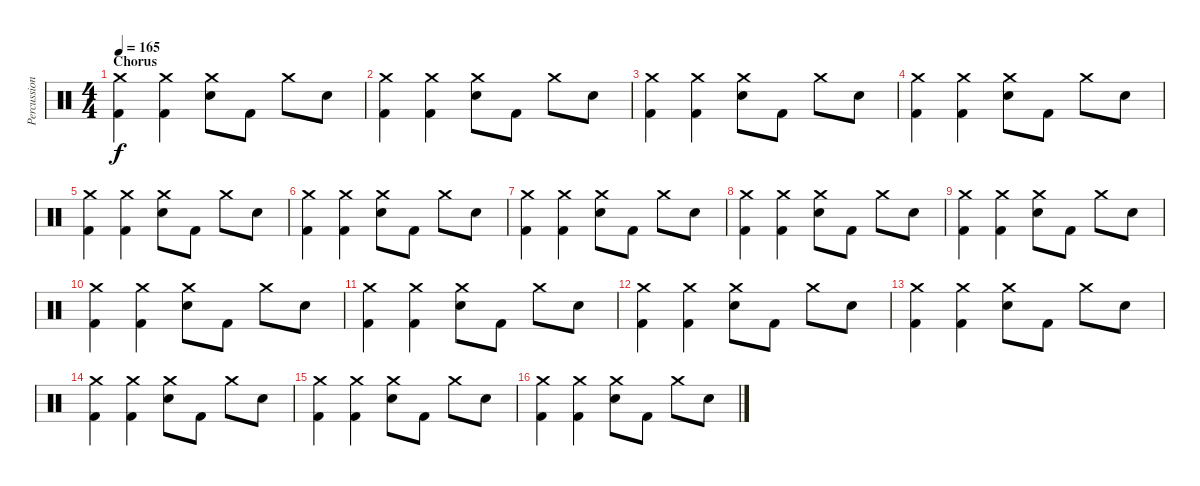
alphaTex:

\track ("Percussion" "Percussion") {instrument percussion}
\staff {score}
\articulation defaults
\ts (4 4)
\section ("" "Chorus")
\tempo 165
\clef neutral
\ks c
("Crash medium (hit)" "Kick (hit) 2").4{dy f} ("Crash medium (hit)" "Kick (hit) 2").4 ("Crash medium (hit)" "Snare (hit) 2").8 "Kick (hit) 2".8 "Crash medium (hit)".8 "Snare (hit) 2".8 |
("Crash medium (hit)" "Kick (hit) 2").4 ("Crash medium (hit)" "Kick (hit) 2").4 ("Crash medium (hit)" "Snare (hit) 2").8 "Kick (hit) 2".8 "Crash medium (hit)".8 "Snare (hit) 2".8 |
("Crash medium (hit)" "Kick (hit) 2").4 ("Crash medium (hit)" "Kick (hit) 2").4 ("Crash medium (hit)" "Snare (hit) 2").8 "Kick (hit) 2".8 "Crash medium (hit)".8 "Snare (hit) 2".8 |
("Crash medium (hit)" "Kick (hit) 2").4 ("Crash medium (hit)" "Kick (hit) 2").4 ("Crash medium (hit)" "Snare (hit) 2").8 "Kick (hit) 2".8 "Crash medium (hit)".8 "Snare (hit) 2".8 |
("Crash medium (hit)" "Kick (hit) 2").4 ("Crash medium (hit)" "Kick (hit) 2").4 ("Crash medium (hit)" "Snare (hit) 2").8 "Kick (hit) 2".8 "Crash medium (hit)".8 "Snare (hit) 2".8 |
("Crash medium (hit)" "Kick (hit) 2").4 ("Crash medium (hit)" "Kick (hit) 2").4 ("Crash medium (hit)" "Snare (hit) 2").8 "Kick (hit) 2".8 "Crash medium (hit)".8 "Snare (hit) 2".8 |
("Crash medium (hit)" "Kick (hit) 2").4 ("Crash medium (hit)" "Kick (hit) 2").4 ("Crash medium (hit)" "Snare (hit) 2").8 "Kick (hit) 2".8 "Crash medium (hit)".8 "Snare (hit) 2".8 |
("Crash medium (hit)" "Kick (hit) 2").4 ("Crash medium (hit)" "Kick (hit) 2").4 ("Crash medium (hit)" "Snare (hit) 2").8 "Kick (hit) 2".8 "Crash medium (hit)".8 "Snare (hit) 2".8 |
("Crash medium (hit)" "Kick (hit) 2").4 ("Crash medium (hit)" "Kick (hit) 2").4 ("Crash medium (hit)" "Snare (hit) 2").8 "Kick (hit) 2".8 "Crash medium (hit)".8 "Snare (hit) 2".8 |
("Crash medium (hit)" "Kick (hit) 2").4 ("Crash medium (hit)" "Kick (hit) 2").4 ("Crash medium (hit)" "Snare (hit) 2").8 "Kick (hit) 2".8 "Crash medium (hit)".8 "Snare (hit) 2".8 |
("Crash medium (hit)" "Kick (hit) 2").4 ("Crash medium (hit)" "Kick (hit) 2").4 ("Crash medium (hit)" "Snare (hit) 2").8 "Kick (hit) 2".8 "Crash medium (hit)".8 "Snare (hit) 2".8 |
("Crash medium (hit)" "Kick (hit) 2").4 ("Crash medium (hit)" "Kick (hit) 2").4 ("Crash medium (hit)" "Snare (hit) 2").8 "Kick (hit) 2".8 "Crash medium (hit)".8 "Snare (hit) 2".8 |
("Crash medium (hit)" "Kick (hit) 2").4 ("Crash medium (hit)" "Kick (hit) 2").4 ("Crash medium (hit)" "Snare (hit) 2").8 "Kick (hit) 2".8 "Crash medium (hit)".8 "Snare (hit) 2".8 |
("Crash medium (hit)" "Kick (hit) 2").4 ("Crash medium (hit)" "Kick (hit) 2").4 ("Crash medium (hit)" "Snare (hit) 2").8 "Kick (hit) 2".8 "Crash medium (hit)".8 "Snare (hit) 2".8 |
("Crash medium (hit)" "Kick (hit) 2").4 ("Crash medium (hit)" "Kick (hit) 2").4 ("Crash medium (hit)" "Snare (hit) 2").8 "Kick (hit) 2".8 "Crash medium (hit)".8 "Snare (hit) 2".8 |
("Crash medium (hit)" "Kick (hit) 2").4 ("Crash medium (hit)" "Kick (hit) 2").4 ("Crash medium (hit)" "Snare (hit) 2").8 "Kick (hit) 2".8 "Crash medium (hit)".8 "Snare (hit) 2".8
